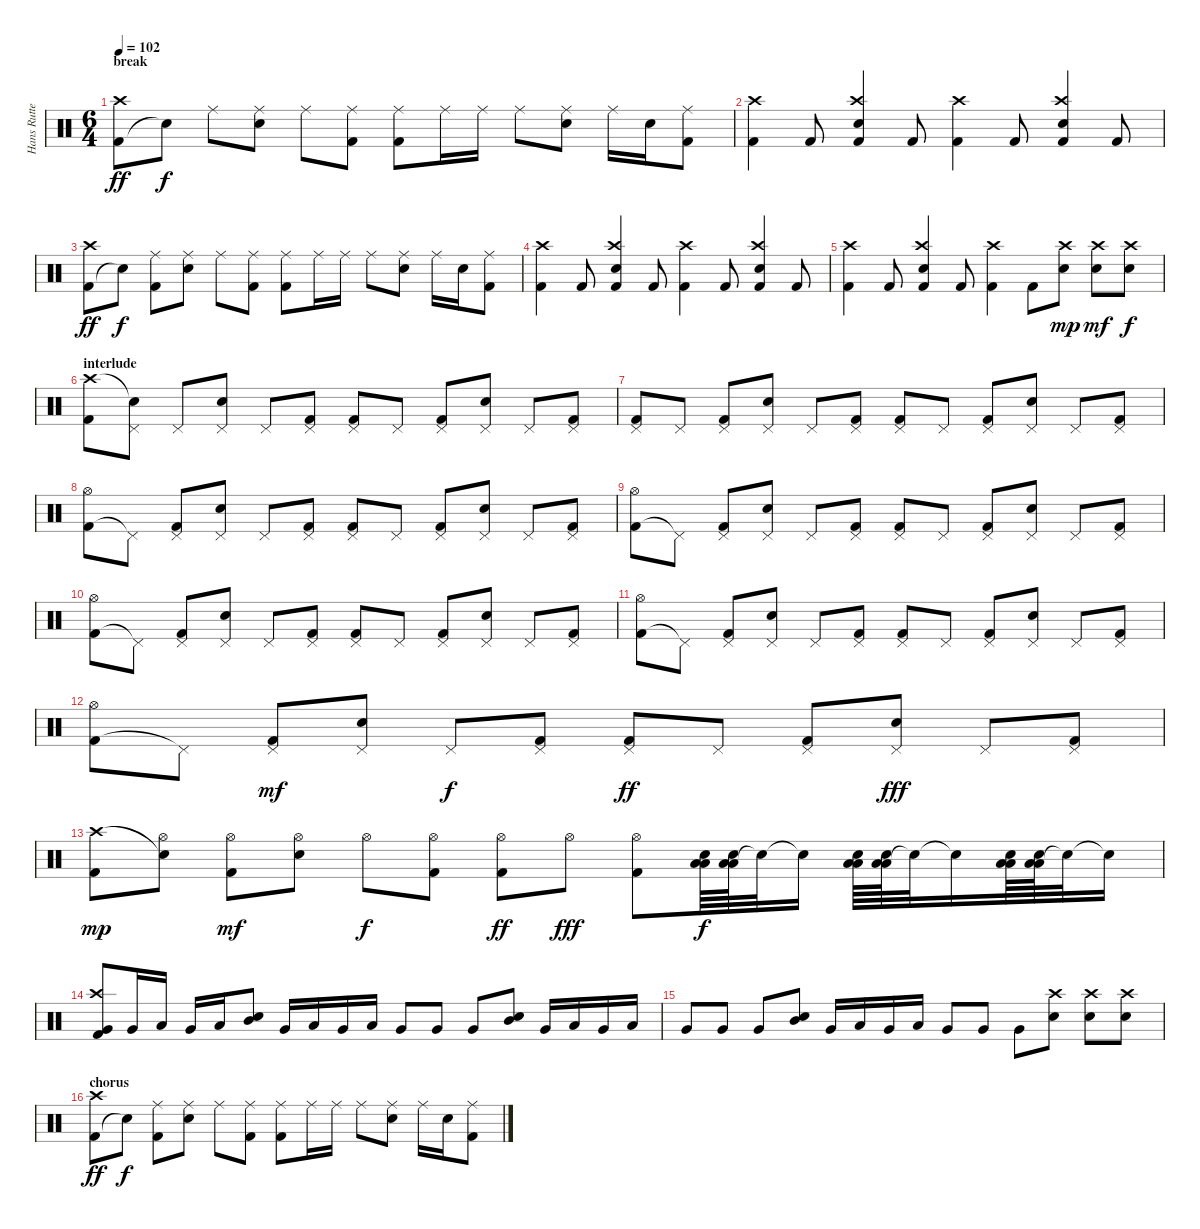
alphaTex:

\track ("Hans Rutten" "Hans Rutte") {instrument percussion}
\staff {score}
\articulation defaults
\ts (6 4)
\section ("" "break")
\tempo 102
\clef neutral
\ks c
("Kick (hit) 2" "Crash high (hit)").8{dy ff} "Snare (hit)"{t}.8{dy f} "Ride (middle)".8 ("Ride (middle)" "Snare (hit) 2").8 "Ride (middle)".8 ("Kick (hit) 2" "Ride (middle)").8 ("Kick (hit) 2" "Ride (middle)").8 "Ride (middle)".16 "Ride (middle)".16 "Ride (middle)".8 ("Ride (middle)" "Snare (hit) 2").8 "Ride (middle)".16 "Snare (hit) 2".16 ("Kick (hit) 2" "Ride (middle)").8 |
("Kick (hit) 2" "Crash high (hit)").4 "Kick (hit) 2".8 ("Kick (hit) 2" "Crash high (hit)" "Snare (hit) 2").4 "Kick (hit) 2".8 ("Kick (hit) 2" "Crash high (hit)").4 "Kick (hit) 2".8 ("Kick (hit) 2" "Crash high (hit)" "Snare (hit) 2").4 "Kick (hit) 2".8 |
("Kick (hit) 2" "Crash high (hit)").8{dy ff} "Snare (hit)"{t}.8{dy f} ("Kick (hit) 2" "Ride (middle)").8 ("Ride (middle)" "Snare (hit) 2").8 "Ride (middle)".8 ("Kick (hit) 2" "Ride (middle)").8 ("Kick (hit) 2" "Ride (middle)").8 "Ride (middle)".16 "Ride (middle)".16 "Ride (middle)".8 ("Ride (middle)" "Snare (hit) 2").8 "Ride (middle)".16 "Snare (hit) 2".16 ("Kick (hit) 2" "Ride (middle)").8 |
("Kick (hit) 2" "Crash high (hit)").4 "Kick (hit) 2".8 ("Kick (hit) 2" "Crash high (hit)" "Snare (hit) 2").4 "Kick (hit) 2".8 ("Kick (hit) 2" "Crash high (hit)").4 "Kick (hit) 2".8 ("Kick (hit) 2" "Crash high (hit)" "Snare (hit) 2").4 "Kick (hit) 2".8 |
("Kick (hit) 2" "Crash high (hit)").4 "Kick (hit) 2".8 ("Kick (hit) 2" "Crash high (hit)" "Snare (hit) 2").4 "Kick (hit) 2".8 ("Kick (hit) 2" "Crash high (hit)").4 "Kick (hit) 2".8 ("Crash high (hit)" "Snare (hit) 2").8{dy mp} ("Crash high (hit)" "Snare (hit) 2").8{dy mf} ("Crash high (hit)" "Snare (hit) 2").8{dy f} |
\section ("" "interlude")
("Kick (hit) 2" "Crash high (hit)").8 ("Pedal Hi-Hat (hit)" "Snare (hit)"{t}).8 "Pedal Hi-Hat (hit)".8 ("Pedal Hi-Hat (hit)" "Snare (hit) 2").8 "Pedal Hi-Hat (hit)".8 ("Kick (hit) 2" "Pedal Hi-Hat (hit)").8 ("Kick (hit) 2" "Pedal Hi-Hat (hit)").8 "Pedal Hi-Hat (hit)".8 ("Kick (hit) 2" "Pedal Hi-Hat (hit)").8 ("Pedal Hi-Hat (hit)" "Snare (hit) 2").8 "Pedal Hi-Hat (hit)".8 ("Kick (hit) 2" "Pedal Hi-Hat (hit)").8 |
("Kick (hit) 2" "Pedal Hi-Hat (hit)").8 "Pedal Hi-Hat (hit)".8 ("Kick (hit) 2" "Pedal Hi-Hat (hit)").8 ("Pedal Hi-Hat (hit)" "Snare (hit) 2").8 "Pedal Hi-Hat (hit)".8 ("Kick (hit) 2" "Pedal Hi-Hat (hit)").8 ("Kick (hit) 2" "Pedal Hi-Hat (hit)").8 "Pedal Hi-Hat (hit)".8 ("Kick (hit) 2" "Pedal Hi-Hat (hit)").8 ("Pedal Hi-Hat (hit)" "Snare (hit) 2").8 "Pedal Hi-Hat (hit)".8 ("Kick (hit) 2" "Pedal Hi-Hat (hit)").8 |
("Kick (hit) 2" "Hi-Hat (open)").8 "Pedal Hi-Hat (hit)"{t}.8 ("Kick (hit) 2" "Pedal Hi-Hat (hit)").8 ("Pedal Hi-Hat (hit)" "Snare (hit) 2").8 "Pedal Hi-Hat (hit)".8 ("Kick (hit) 2" "Pedal Hi-Hat (hit)").8 ("Kick (hit) 2" "Pedal Hi-Hat (hit)").8 "Pedal Hi-Hat (hit)".8 ("Kick (hit) 2" "Pedal Hi-Hat (hit)").8 ("Pedal Hi-Hat (hit)" "Snare (hit) 2").8 "Pedal Hi-Hat (hit)".8 ("Kick (hit) 2" "Pedal Hi-Hat (hit)").8 |
("Kick (hit) 2" "Hi-Hat (open)").8 "Pedal Hi-Hat (hit)"{t}.8 ("Kick (hit) 2" "Pedal Hi-Hat (hit)").8 ("Pedal Hi-Hat (hit)" "Snare (hit) 2").8 "Pedal Hi-Hat (hit)".8 ("Kick (hit) 2" "Pedal Hi-Hat (hit)").8 ("Kick (hit) 2" "Pedal Hi-Hat (hit)").8 "Pedal Hi-Hat (hit)".8 ("Kick (hit) 2" "Pedal Hi-Hat (hit)").8 ("Pedal Hi-Hat (hit)" "Snare (hit) 2").8 "Pedal Hi-Hat (hit)".8 ("Kick (hit) 2" "Pedal Hi-Hat (hit)").8 |
("Kick (hit) 2" "Hi-Hat (open)").8 "Pedal Hi-Hat (hit)"{t}.8 ("Kick (hit) 2" "Pedal Hi-Hat (hit)").8 ("Pedal Hi-Hat (hit)" "Snare (hit) 2").8 "Pedal Hi-Hat (hit)".8 ("Kick (hit) 2" "Pedal Hi-Hat (hit)").8 ("Kick (hit) 2" "Pedal Hi-Hat (hit)").8 "Pedal Hi-Hat (hit)".8 ("Kick (hit) 2" "Pedal Hi-Hat (hit)").8 ("Pedal Hi-Hat (hit)" "Snare (hit) 2").8 "Pedal Hi-Hat (hit)".8 ("Kick (hit) 2" "Pedal Hi-Hat (hit)").8 |
("Kick (hit) 2" "Hi-Hat (open)").8 "Pedal Hi-Hat (hit)"{t}.8 ("Kick (hit) 2" "Pedal Hi-Hat (hit)").8 ("Pedal Hi-Hat (hit)" "Snare (hit) 2").8 "Pedal Hi-Hat (hit)".8 ("Kick (hit) 2" "Pedal Hi-Hat (hit)").8 ("Kick (hit) 2" "Pedal Hi-Hat (hit)").8 "Pedal Hi-Hat (hit)".8 ("Kick (hit) 2" "Pedal Hi-Hat (hit)").8 ("Pedal Hi-Hat (hit)" "Snare (hit) 2").8 "Pedal Hi-Hat (hit)".8 ("Kick (hit) 2" "Pedal Hi-Hat (hit)").8 |
("Kick (hit) 2" "Hi-Hat (open)").8 "Pedal Hi-Hat (hit)"{t}.8 ("Kick (hit) 2" "Pedal Hi-Hat (hit)").8{dy mf} ("Pedal Hi-Hat (hit)" "Snare (hit) 2").8 "Pedal Hi-Hat (hit)".8{dy f} ("Kick (hit) 2" "Pedal Hi-Hat (hit)").8 ("Kick (hit) 2" "Pedal Hi-Hat (hit)").8{dy ff} "Pedal Hi-Hat (hit)".8 ("Kick (hit) 2" "Pedal Hi-Hat (hit)").8 ("Pedal Hi-Hat (hit)" "Snare (hit) 2").8{dy fff} "Pedal Hi-Hat (hit)".8 ("Kick (hit) 2" "Pedal Hi-Hat (hit)").8 |
("Kick (hit) 2" "Crash high (hit)").8{dy mp} ("Hi-Hat (open)" "Snare (hit)"{t}).8 ("Kick (hit) 2" "Hi-Hat (open)").8{dy mf} ("Hi-Hat (open)" "Snare (hit) 2").8 "Hi-Hat (open)".8{dy f} ("Kick (hit) 2" "Hi-Hat (open)").8 ("Kick (hit) 2" "Hi-Hat (open)").8{dy ff} "Hi-Hat (open)".8{dy fff} ("Kick (hit) 2" "Hi-Hat (open)").8 ("Low Tom (hit)" "Snare (hit) 2" "Low Floor Tom (hit)").64{dy f} ("Low Tom (hit)" "Snare (hit) 2" "Low Floor Tom (hit)").64 "Snare (hit)"{t}.32 "Snare (hit)"{t}.16 ("Low Tom (hit)" "Snare (hit) 2" "Low Floor Tom (hit)").64 ("Low Tom (hit)" "Snare (hit) 2" "Low Floor Tom (hit)").64 "Snare (hit)"{t}.32 "Snare (hit)"{t}.16 ("Low Tom (hit)" "Snare (hit) 2" "Low Floor Tom (hit)").64 ("Low Tom (hit)" "Snare (hit) 2" "Low Floor Tom (hit)").64 "Snare (hit)"{t}.32 "Snare (hit)"{t}.16 |
("Kick (hit) 2" "Crash high (hit)" "Very Low Tom (hit)").8 "Very Low Tom (hit)".16 "Low Tom (hit)".16 "Very Low Tom (hit)".16 "Low Tom (hit)".16 ("Mid Tom (hit)" "Snare (hit) 2").8 "Very Low Tom (hit)".16 "Low Tom (hit)".16 "Very Low Tom (hit)".16 "Low Tom (hit)".16 "Very Low Tom (hit)".8 "Very Low Tom (hit)".8 "Very Low Tom (hit)".8 ("Mid Tom (hit)" "Snare (hit) 2").8 "Very Low Tom (hit)".16 "Low Tom (hit)".16 "Very Low Tom (hit)".16 "Low Tom (hit)".16 |
"Very Low Tom (hit)".8 "Very Low Tom (hit)".8 "Very Low Tom (hit)".8 ("Mid Tom (hit)" "Snare (hit) 2").8 "Very Low Tom (hit)".16 "Low Tom (hit)".16 "Very Low Tom (hit)".16 "Low Tom (hit)".16 "Very Low Tom (hit)".8 "Very Low Tom (hit)".8 "Very Low Tom (hit)".8 ("Crash high (hit)" "Snare (hit) 2").8 ("Crash high (hit)" "Snare (hit) 2").8 ("Crash high (hit)" "Snare (hit) 2").8 |
\section ("" "chorus")
("Kick (hit) 2" "Crash high (hit)").8{dy ff} "Snare (hit)"{t}.8{dy f} ("Kick (hit) 2" "Ride (middle)").8 ("Ride (middle)" "Snare (hit) 2").8 "Ride (middle)".8 ("Kick (hit) 2" "Ride (middle)").8 ("Kick (hit) 2" "Ride (middle)").8 "Ride (middle)".16 "Ride (middle)".16 "Ride (middle)".8 ("Ride (middle)" "Snare (hit) 2").8 "Ride (middle)".16 "Snare (hit) 2".16 ("Kick (hit) 2" "Ride (middle)").8
